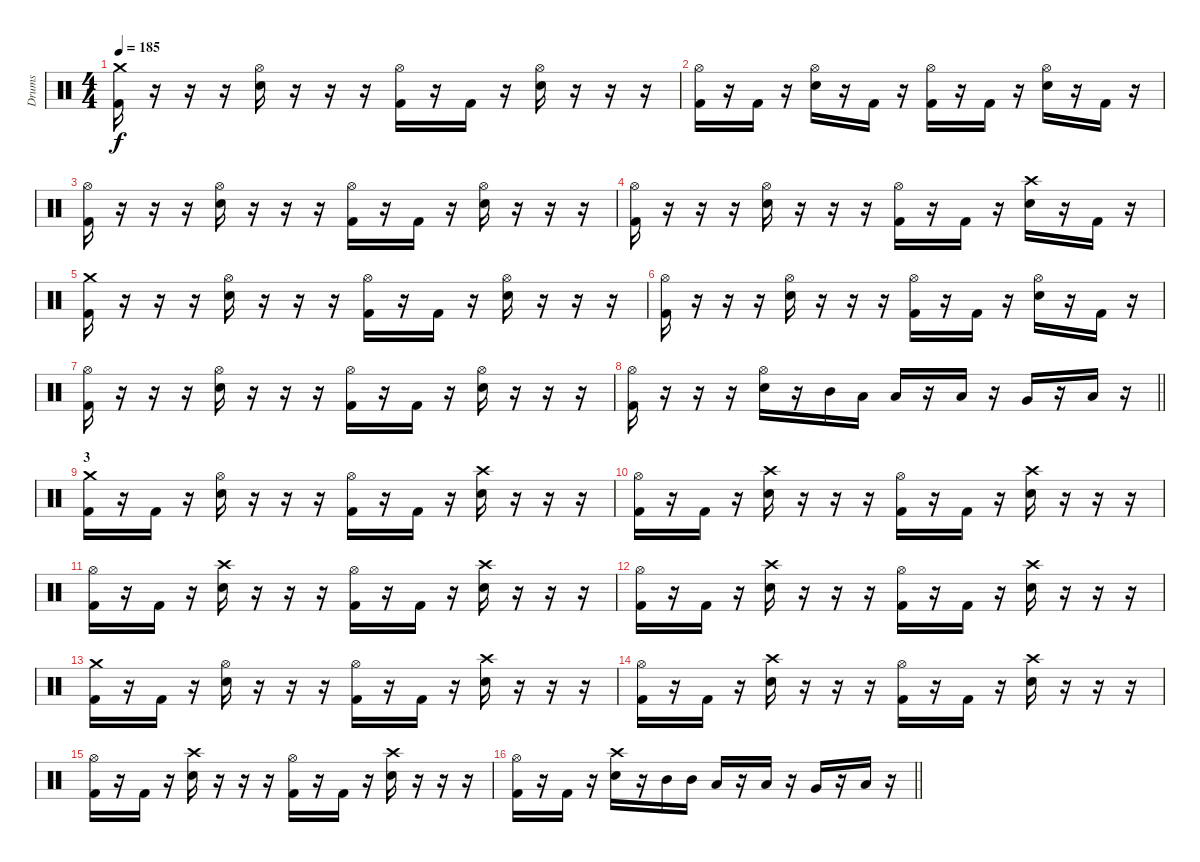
\track ("Drums" "Drums") {instrument percussion}
\staff {score}
\articulation defaults
\ts (4 4)
\section ("" "")
\tempo 185
\clef neutral
\ks c
("Crash medium (hit)" "Kick (hit) 2").16{dy f} r.16 r.16 r.16 ("Hi-Hat (open)" "Electric Snare (hit)").16 r.16 r.16 r.16 ("Hi-Hat (open)" "Kick (hit) 2").16 r.16 "Kick (hit) 2".16 r.16 ("Hi-Hat (open)" "Electric Snare (hit)").16 r.16 r.16 r.16 |
("Hi-Hat (open)" "Kick (hit) 2").16 r.16 "Kick (hit) 2".16 r.16 ("Hi-Hat (open)" "Electric Snare (hit)").16 r.16 "Kick (hit) 2".16 r.16 ("Hi-Hat (open)" "Kick (hit) 2").16 r.16 "Kick (hit) 2".16 r.16 ("Hi-Hat (open)" "Electric Snare (hit)").16 r.16 "Kick (hit) 2".16 r.16 |
("Hi-Hat (open)" "Kick (hit) 2").16 r.16 r.16 r.16 ("Hi-Hat (open)" "Electric Snare (hit)").16 r.16 r.16 r.16 ("Hi-Hat (open)" "Kick (hit) 2").16 r.16 "Kick (hit) 2".16 r.16 ("Hi-Hat (open)" "Electric Snare (hit)").16 r.16 r.16 r.16 |
("Hi-Hat (open)" "Kick (hit) 2").16 r.16 r.16 r.16 ("Hi-Hat (open)" "Electric Snare (hit)").16 r.16 r.16 r.16 ("Hi-Hat (open)" "Kick (hit) 2").16 r.16 "Kick (hit) 2".16 r.16 ("Crash high (hit)" "Electric Snare (hit)").16 r.16 "Kick (hit) 2".16 r.16 |
("Crash medium (hit)" "Kick (hit) 2").16 r.16 r.16 r.16 ("Hi-Hat (open)" "Electric Snare (hit)").16 r.16 r.16 r.16 ("Hi-Hat (open)" "Kick (hit) 2").16 r.16 "Kick (hit) 2".16 r.16 ("Hi-Hat (open)" "Electric Snare (hit)").16 r.16 r.16 r.16 |
("Hi-Hat (open)" "Kick (hit) 2").16 r.16 r.16 r.16 ("Hi-Hat (open)" "Electric Snare (hit)").16 r.16 r.16 r.16 ("Hi-Hat (open)" "Kick (hit) 2").16 r.16 "Kick (hit) 2".16 r.16 ("Hi-Hat (open)" "Electric Snare (hit)").16 r.16 "Kick (hit) 2".16 r.16 |
("Hi-Hat (open)" "Kick (hit) 2").16 r.16 r.16 r.16 ("Hi-Hat (open)" "Electric Snare (hit)").16 r.16 r.16 r.16 ("Hi-Hat (open)" "Kick (hit) 2").16 r.16 "Kick (hit) 2".16 r.16 ("Hi-Hat (open)" "Electric Snare (hit)").16 r.16 r.16 r.16 |
\barLineRight lightlight
("Hi-Hat (open)" "Kick (hit) 2").16 r.16 r.16 r.16 ("Hi-Hat (open)" "Electric Snare (hit)").16 r.16 "Mid Tom (hit)".16 "Low Tom (hit)".16 "Low Tom (hit)".16 r.16 "Low Tom (hit)".16 r.16 "Very Low Tom (hit)".16 r.16 "Low Floor Tom (hit)".16 r.16 |
\section ("" "3")
("Crash medium (hit)" "Kick (hit) 2").16 r.16 "Kick (hit) 2".16 r.16 ("Hi-Hat (open)" "Electric Snare (hit)").16 r.16 r.16 r.16 ("Hi-Hat (open)" "Kick (hit) 2").16 r.16 "Kick (hit) 2".16 r.16 ("Crash high (hit)" "Electric Snare (hit)").16 r.16 r.16 r.16 |
("Hi-Hat (open)" "Kick (hit) 2").16 r.16 "Kick (hit) 2".16 r.16 ("Crash high (hit)" "Electric Snare (hit)").16 r.16 r.16 r.16 ("Hi-Hat (open)" "Kick (hit) 2").16 r.16 "Kick (hit) 2".16 r.16 ("Crash high (hit)" "Electric Snare (hit)").16 r.16 r.16 r.16 |
("Hi-Hat (open)" "Kick (hit) 2").16 r.16 "Kick (hit) 2".16 r.16 ("Crash high (hit)" "Electric Snare (hit)").16 r.16 r.16 r.16 ("Hi-Hat (open)" "Kick (hit) 2").16 r.16 "Kick (hit) 2".16 r.16 ("Crash high (hit)" "Electric Snare (hit)").16 r.16 r.16 r.16 |
("Hi-Hat (open)" "Kick (hit) 2").16 r.16 "Kick (hit) 2".16 r.16 ("Crash high (hit)" "Electric Snare (hit)").16 r.16 r.16 r.16 ("Hi-Hat (open)" "Kick (hit) 2").16 r.16 "Kick (hit) 2".16 r.16 ("Crash high (hit)" "Electric Snare (hit)").16 r.16 r.16 r.16 |
("Crash medium (hit)" "Kick (hit) 2").16 r.16 "Kick (hit) 2".16 r.16 ("Hi-Hat (open)" "Electric Snare (hit)").16 r.16 r.16 r.16 ("Hi-Hat (open)" "Kick (hit) 2").16 r.16 "Kick (hit) 2".16 r.16 ("Crash high (hit)" "Electric Snare (hit)").16 r.16 r.16 r.16 |
("Hi-Hat (open)" "Kick (hit) 2").16 r.16 "Kick (hit) 2".16 r.16 ("Crash high (hit)" "Electric Snare (hit)").16 r.16 r.16 r.16 ("Hi-Hat (open)" "Kick (hit) 2").16 r.16 "Kick (hit) 2".16 r.16 ("Crash high (hit)" "Electric Snare (hit)").16 r.16 r.16 r.16 |
("Hi-Hat (open)" "Kick (hit) 2").16 r.16 "Kick (hit) 2".16 r.16 ("Crash high (hit)" "Electric Snare (hit)").16 r.16 r.16 r.16 ("Hi-Hat (open)" "Kick (hit) 2").16 r.16 "Kick (hit) 2".16 r.16 ("Crash high (hit)" "Electric Snare (hit)").16 r.16 r.16 r.16 |
\barLineRight lightlight
("Hi-Hat (open)" "Kick (hit) 2").16 r.16 "Kick (hit) 2".16 r.16 ("Crash high (hit)" "Electric Snare (hit)").16 r.16 "Mid Tom (hit)".16 "Mid Tom (hit)".16 "Low Tom (hit)".16 r.16 "Low Tom (hit)".16 r.16 "Very Low Tom (hit)".16 r.16 "Low Floor Tom (hit)".16 r.16
